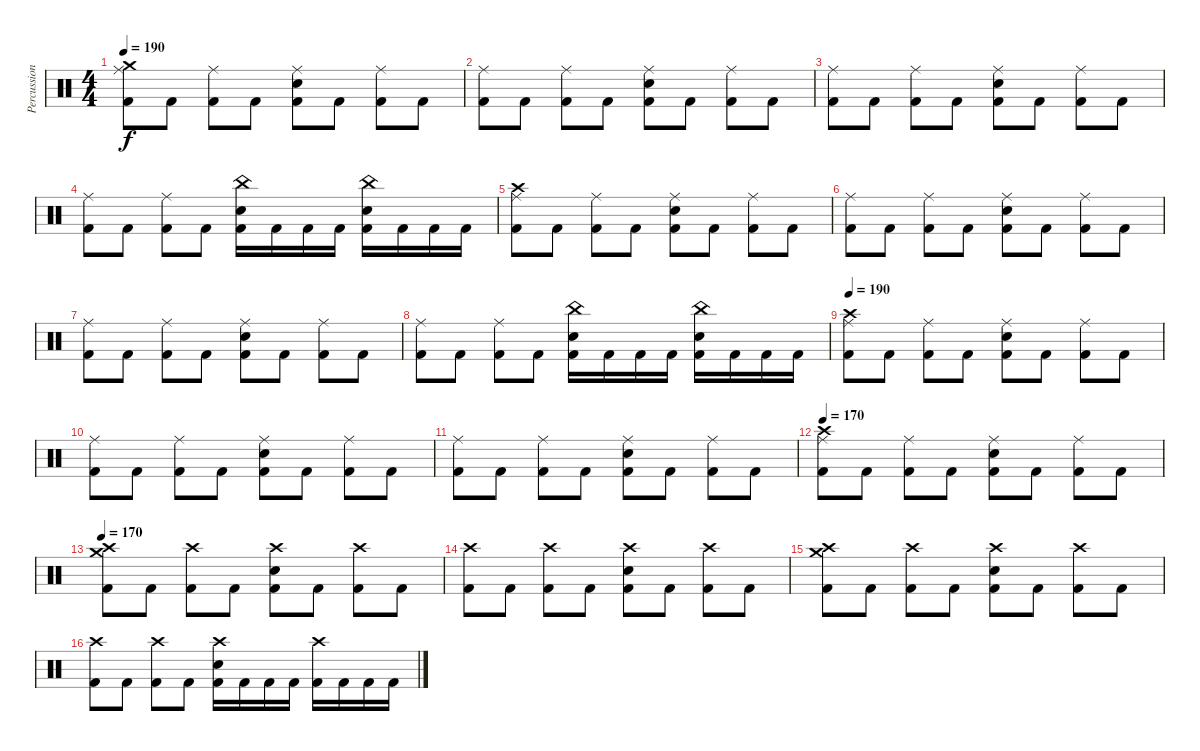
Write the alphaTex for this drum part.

\track ("Percussion" "Percussion") {instrument percussion}
\staff {score}
\articulation defaults
\ts (4 4)
\tempo 190
\clef neutral
\ks c
("Crash medium (hit)" "Ride (middle)" "Kick (hit) 2").8{dy f} "Kick (hit) 2".8 ("Ride (middle)" "Kick (hit) 2").8 "Kick (hit) 2".8 ("Snare (hit) 2" "Ride (middle)" "Kick (hit) 2").8 "Kick (hit) 2".8 ("Ride (middle)" "Kick (hit) 2").8 "Kick (hit) 2".8 |
("Ride (middle)" "Kick (hit) 2").8 "Kick (hit) 2".8 ("Ride (middle)" "Kick (hit) 2").8 "Kick (hit) 2".8 ("Snare (hit) 2" "Ride (middle)" "Kick (hit) 2").8 "Kick (hit) 2".8 ("Ride (middle)" "Kick (hit) 2").8 "Kick (hit) 2".8 |
("Ride (middle)" "Kick (hit) 2").8 "Kick (hit) 2".8 ("Ride (middle)" "Kick (hit) 2").8 "Kick (hit) 2".8 ("Snare (hit) 2" "Ride (middle)" "Kick (hit) 2").8 "Kick (hit) 2".8 ("Ride (middle)" "Kick (hit) 2").8 "Kick (hit) 2".8 |
("Ride (middle)" "Kick (hit) 2").8 "Kick (hit) 2".8 ("Ride (middle)" "Kick (hit) 2").8 "Kick (hit) 2".8 ("Snare (hit) 2" "China (hit)" "Kick (hit) 2").16 "Kick (hit) 2".16 "Kick (hit) 2".16 "Kick (hit) 2".16 ("Snare (hit) 2" "China (hit)" "Kick (hit) 2").16 "Kick (hit) 2".16 "Kick (hit) 2".16 "Kick (hit) 2".16 |
("Crash high (hit)" "Ride (middle)" "Kick (hit) 2").8 "Kick (hit) 2".8 ("Ride (middle)" "Kick (hit) 2").8 "Kick (hit) 2".8 ("Snare (hit) 2" "Ride (middle)" "Kick (hit) 2").8 "Kick (hit) 2".8 ("Ride (middle)" "Kick (hit) 2").8 "Kick (hit) 2".8 |
("Ride (middle)" "Kick (hit) 2").8 "Kick (hit) 2".8 ("Ride (middle)" "Kick (hit) 2").8 "Kick (hit) 2".8 ("Snare (hit) 2" "Ride (middle)" "Kick (hit) 2").8 "Kick (hit) 2".8 ("Ride (middle)" "Kick (hit) 2").8 "Kick (hit) 2".8 |
("Ride (middle)" "Kick (hit) 2").8 "Kick (hit) 2".8 ("Ride (middle)" "Kick (hit) 2").8 "Kick (hit) 2".8 ("Snare (hit) 2" "Ride (middle)" "Kick (hit) 2").8 "Kick (hit) 2".8 ("Ride (middle)" "Kick (hit) 2").8 "Kick (hit) 2".8 |
("Ride (middle)" "Kick (hit) 2").8 "Kick (hit) 2".8 ("Ride (middle)" "Kick (hit) 2").8 "Kick (hit) 2".8 ("Snare (hit) 2" "China (hit)" "Kick (hit) 2").16 "Kick (hit) 2".16 "Kick (hit) 2".16 "Kick (hit) 2".16 ("Snare (hit) 2" "China (hit)" "Kick (hit) 2").16 "Kick (hit) 2".16 "Kick (hit) 2".16 "Kick (hit) 2".16 |
\tempo 190
("Crash high (hit)" "Ride (middle)" "Kick (hit) 2").8 "Kick (hit) 2".8 ("Ride (middle)" "Kick (hit) 2").8 "Kick (hit) 2".8 ("Snare (hit) 2" "Ride (middle)" "Kick (hit) 2").8 "Kick (hit) 2".8 ("Ride (middle)" "Kick (hit) 2").8 "Kick (hit) 2".8 |
("Ride (middle)" "Kick (hit) 2").8 "Kick (hit) 2".8 ("Ride (middle)" "Kick (hit) 2").8 "Kick (hit) 2".8 ("Snare (hit) 2" "Ride (middle)" "Kick (hit) 2").8 "Kick (hit) 2".8 ("Ride (middle)" "Kick (hit) 2").8 "Kick (hit) 2".8 |
("Ride (middle)" "Kick (hit) 2").8 "Kick (hit) 2".8 ("Ride (middle)" "Kick (hit) 2").8 "Kick (hit) 2".8 ("Snare (hit) 2" "Ride (middle)" "Kick (hit) 2").8 "Kick (hit) 2".8 ("Ride (middle)" "Kick (hit) 2").8 "Kick (hit) 2".8 |
\tempo 170
("Crash high (hit)" "Ride (middle)" "Kick (hit) 2").8 "Kick (hit) 2".8 ("Ride (middle)" "Kick (hit) 2").8 "Kick (hit) 2".8 ("Snare (hit) 2" "Ride (middle)" "Kick (hit) 2").8 "Kick (hit) 2".8 ("Ride (middle)" "Kick (hit) 2").8 "Kick (hit) 2".8 |
\tempo 170
("Crash medium (hit)" "Crash high (hit)" "Kick (hit) 2").8 "Kick (hit) 2".8 ("Crash high (hit)" "Kick (hit) 2").8 "Kick (hit) 2".8 ("Crash high (hit)" "Snare (hit) 2" "Kick (hit) 2").8 "Kick (hit) 2".8 ("Crash high (hit)" "Kick (hit) 2").8 "Kick (hit) 2".8 |
("Crash high (hit)" "Kick (hit) 2").8 "Kick (hit) 2".8 ("Crash high (hit)" "Kick (hit) 2").8 "Kick (hit) 2".8 ("Crash high (hit)" "Snare (hit) 2" "Kick (hit) 2").8 "Kick (hit) 2".8 ("Crash high (hit)" "Kick (hit) 2").8 "Kick (hit) 2".8 |
("Crash medium (hit)" "Crash high (hit)" "Kick (hit) 2").8 "Kick (hit) 2".8 ("Crash high (hit)" "Kick (hit) 2").8 "Kick (hit) 2".8 ("Crash high (hit)" "Snare (hit) 2" "Kick (hit) 2").8 "Kick (hit) 2".8 ("Crash high (hit)" "Kick (hit) 2").8 "Kick (hit) 2".8 |
("Crash high (hit)" "Kick (hit) 2").8 "Kick (hit) 2".8 ("Crash high (hit)" "Kick (hit) 2").8 "Kick (hit) 2".8 ("Crash high (hit)" "Snare (hit) 2" "Kick (hit) 2").16 "Kick (hit) 2".16 "Kick (hit) 2".16 "Kick (hit) 2".16 ("Crash high (hit)" "Kick (hit) 2").16 "Kick (hit) 2".16 "Kick (hit) 2".16 "Kick (hit) 2".16
